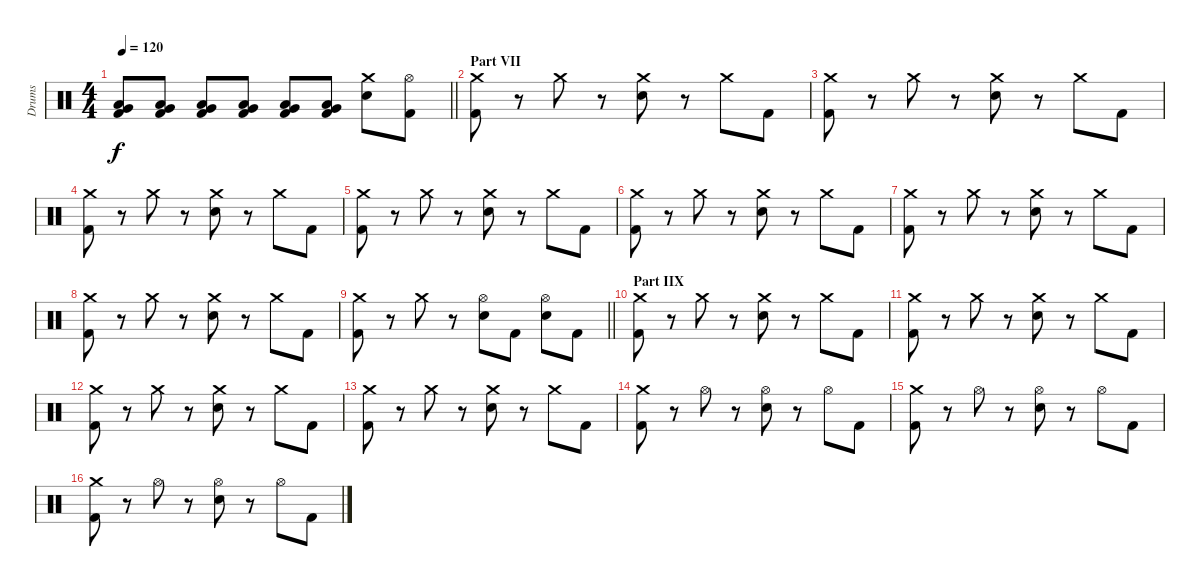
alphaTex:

\track ("Drums" "Drums") {instrument percussion}
\staff {score}
\articulation defaults
\ts (4 4)
\tempo 120
\clef neutral
\barLineRight lightlight
\ks c
("Low Floor Tom (hit)" "Very Low Tom (hit)" "Kick (hit) 2").8{dy f} ("Low Floor Tom (hit)" "Very Low Tom (hit)" "Kick (hit) 2").8 ("Low Floor Tom (hit)" "Very Low Tom (hit)" "Kick (hit) 2").8 ("Low Floor Tom (hit)" "Very Low Tom (hit)" "Kick (hit) 2").8 ("Low Floor Tom (hit)" "Very Low Tom (hit)" "Kick (hit) 2").8 ("Low Floor Tom (hit)" "Very Low Tom (hit)" "Kick (hit) 2").8 ("Crash medium (hit)" "Electric Snare (hit)").8 ("Hi-Hat (open)" "Kick (hit) 2").8 |
\section ("" "Part VII")
("Crash medium (hit)" "Kick (hit) 2").8 r.8 "Crash medium (hit)".8 r.8 ("Crash medium (hit)" "Electric Snare (hit)").8 r.8 "Crash medium (hit)".8 "Kick (hit) 2".8 |
("Crash medium (hit)" "Kick (hit) 2").8 r.8 "Crash medium (hit)".8 r.8 ("Crash medium (hit)" "Electric Snare (hit)").8 r.8 "Crash medium (hit)".8 "Kick (hit) 2".8 |
("Crash medium (hit)" "Kick (hit) 2").8 r.8 "Crash medium (hit)".8 r.8 ("Crash medium (hit)" "Electric Snare (hit)").8 r.8 "Crash medium (hit)".8 "Kick (hit) 2".8 |
("Crash medium (hit)" "Kick (hit) 2").8 r.8 "Crash medium (hit)".8 r.8 ("Crash medium (hit)" "Electric Snare (hit)").8 r.8 "Crash medium (hit)".8 "Kick (hit) 2".8 |
("Crash medium (hit)" "Kick (hit) 2").8 r.8 "Crash medium (hit)".8 r.8 ("Crash medium (hit)" "Electric Snare (hit)").8 r.8 "Crash medium (hit)".8 "Kick (hit) 2".8 |
("Crash medium (hit)" "Kick (hit) 2").8 r.8 "Crash medium (hit)".8 r.8 ("Crash medium (hit)" "Electric Snare (hit)").8 r.8 "Crash medium (hit)".8 "Kick (hit) 2".8 |
("Crash medium (hit)" "Kick (hit) 2").8 r.8 "Crash medium (hit)".8 r.8 ("Crash medium (hit)" "Electric Snare (hit)").8 r.8 "Crash medium (hit)".8 "Kick (hit) 2".8 |
\barLineRight lightlight
("Crash medium (hit)" "Kick (hit) 2").8 r.8 "Crash medium (hit)".8 r.8 ("Hi-Hat (open)" "Electric Snare (hit)").8 "Kick (hit) 2".8 ("Hi-Hat (open)" "Electric Snare (hit)").8 "Kick (hit) 2".8 |
\section ("" "Part IIX")
("Crash medium (hit)" "Kick (hit) 2").8 r.8 "Crash medium (hit)".8 r.8 ("Crash medium (hit)" "Electric Snare (hit)").8 r.8 "Crash medium (hit)".8 "Kick (hit) 2".8 |
("Crash medium (hit)" "Kick (hit) 2").8 r.8 "Crash medium (hit)".8 r.8 ("Crash medium (hit)" "Electric Snare (hit)").8 r.8 "Crash medium (hit)".8 "Kick (hit) 2".8 |
("Crash medium (hit)" "Kick (hit) 2").8 r.8 "Crash medium (hit)".8 r.8 ("Crash medium (hit)" "Electric Snare (hit)").8 r.8 "Crash medium (hit)".8 "Kick (hit) 2".8 |
("Crash medium (hit)" "Kick (hit) 2").8 r.8 "Crash medium (hit)".8 r.8 ("Crash medium (hit)" "Electric Snare (hit)").8 r.8 "Crash medium (hit)".8 "Kick (hit) 2".8 |
("Crash medium (hit)" "Kick (hit) 2").8 r.8 "Hi-Hat (open)".8 r.8 ("Hi-Hat (open)" "Electric Snare (hit)").8 r.8 "Hi-Hat (open)".8 "Kick (hit) 2".8 |
("Crash medium (hit)" "Kick (hit) 2").8 r.8 "Hi-Hat (open)".8 r.8 ("Hi-Hat (open)" "Electric Snare (hit)").8 r.8 "Hi-Hat (open)".8 "Kick (hit) 2".8 |
("Crash medium (hit)" "Kick (hit) 2").8 r.8 "Hi-Hat (open)".8 r.8 ("Hi-Hat (open)" "Electric Snare (hit)").8 r.8 "Hi-Hat (open)".8 "Kick (hit) 2".8
